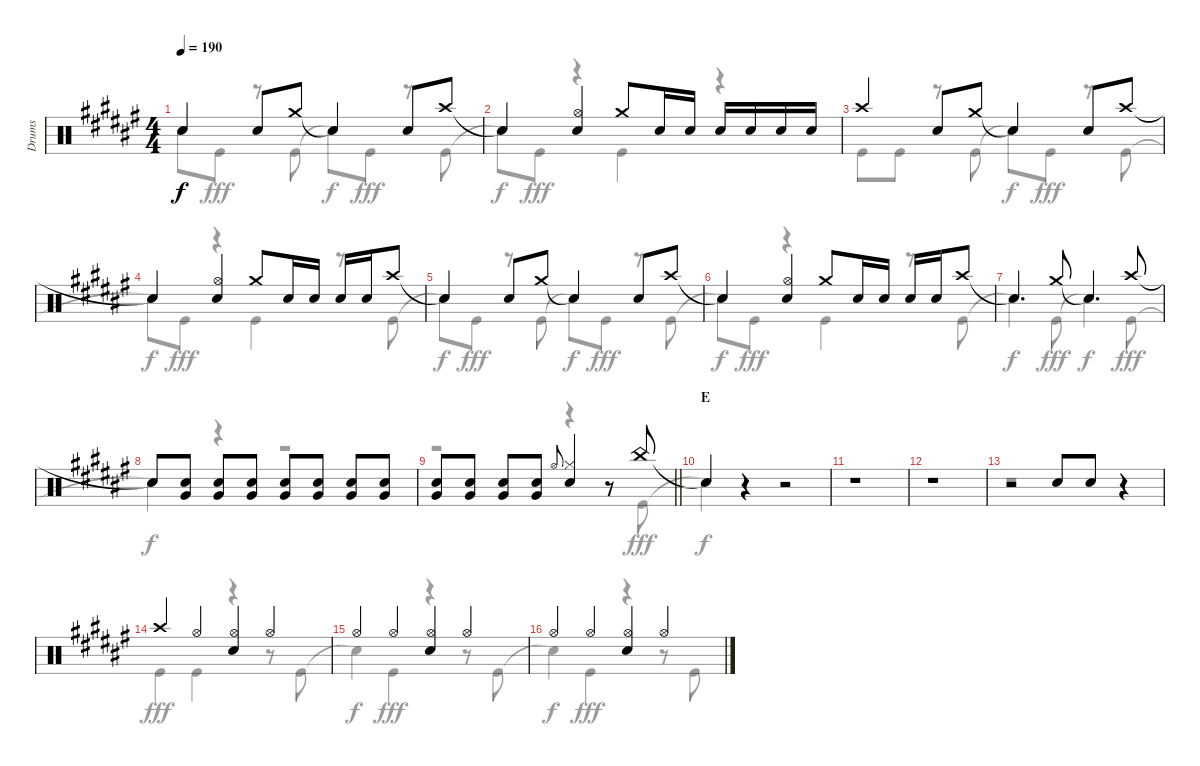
\track ("Drums" "Drums") {instrument percussion}
\staff {score}
\articulation defaults
\voice
\ts (4 4)
\tempo 190
\clef neutral
\ks f# "Snare (hit)"{t}.4{dy f} "Snare (hit) 2".8 "Crash medium (hit)".8 "Snare (hit)"{t}.4 "Snare (hit) 2".8 "Crash high (hit)".8
|
"Snare (hit)"{t}.4 ("Hi-Hat (open)" "Snare (hit) 2").4 "Crash medium (hit)".8 "Snare (hit) 2".16 "Snare (hit) 2".16 "Snare (hit) 2".16 "Snare (hit) 2".16 "Snare (hit) 2".16 "Snare (hit) 2".16 |
"Crash high (hit)".4 "Snare (hit) 2".8 "Crash medium (hit)".8 "Snare (hit)"{t}.4 "Snare (hit) 2".8 "Crash high (hit)".8 |
"Snare (hit)"{t}.4 ("Hi-Hat (open)" "Snare (hit) 2").4 "Crash medium (hit)".8 "Snare (hit) 2".16 "Snare (hit) 2".16 "Snare (hit) 2".16 "Snare (hit) 2".16 "Crash high (hit)".8 |
"Snare (hit)"{t}.4 "Snare (hit) 2".8 "Crash medium (hit)".8 "Snare (hit)"{t}.4 "Snare (hit) 2".8 "Crash high (hit)".8 |
"Snare (hit)"{t}.4 ("Hi-Hat (open)" "Snare (hit) 2").4 "Crash medium (hit)".8 "Snare (hit) 2".16 "Snare (hit) 2".16 "Snare (hit) 2".16 "Snare (hit) 2".16 "Crash high (hit)".8 |
"Snare (hit)"{t}.4{d} "Crash medium (hit)".8 "Snare (hit)"{t}.4{d} "Crash high (hit)".8 |
"Snare (hit)"{t}.8 ("Snare (hit) 2" "Very Low Tom (hit)").8 ("Snare (hit) 2" "Very Low Tom (hit)").8 ("Snare (hit) 2" "Very Low Tom (hit)").8 ("Snare (hit) 2" "Very Low Tom (hit)").8 ("Snare (hit) 2" "Very Low Tom (hit)").8 ("Snare (hit) 2" "Very Low Tom (hit)").8 ("Snare (hit) 2" "Very Low Tom (hit)").8 |
\barLineRight lightlight
("Snare (hit) 2" "Very Low Tom (hit)").8 ("Snare (hit) 2" "Very Low Tom (hit)").8 ("Snare (hit) 2" "Very Low Tom (hit)").8 ("Snare (hit) 2" "Very Low Tom (hit)").8 "Hi-Hat (open)".8{gr onbeat} ("Hi-Hat (closed)" "Snare (hit) 2").4 r.8 "China (hit)".8 |
\section ("" "E")
"Snare (hit)"{t}.4 r.4 r.2 |
r.1 |
r.1 |
r.2 "Snare (hit) 2".8 "Snare (hit) 2".8 r.4 |
"Crash high (hit)".4 "Hi-Hat (open)".4 ("Hi-Hat (open)" "Snare (hit) 2").4 "Hi-Hat (open)".4 |
"Hi-Hat (open)".4 "Hi-Hat (open)".4 ("Hi-Hat (open)" "Snare (hit) 2").4 "Hi-Hat (open)".4 |
"Hi-Hat (open)".4 "Hi-Hat (open)".4 ("Hi-Hat (open)" "Snare (hit) 2").4 "Hi-Hat (open)".4
\voice
\clef neutral
\ottava regular
\simile none
\ks f# "Snare (hit)"{t}.8{dy f} "Kick (hit)".8{dy fff}
r.8 "Kick (hit)".8 "Snare (hit)"{t}.8{dy f} "Kick (hit)".8{dy fff} r.8 "Kick (hit)".8 |
"Snare (hit)"{t}.8{dy f} "Kick (hit)".8{dy fff} r.4 "Kick (hit)".4 r.4 |
"Kick (hit)".8 "Kick (hit)".8 r.8 "Kick (hit)".8 "Snare (hit)"{t}.8{dy f} "Kick (hit)".8{dy fff} r.8 "Kick (hit)".8 |
"Snare (hit)"{t}.8{dy f} "Kick (hit)".8{dy fff} r.4 "Kick (hit)".4 r.8 "Kick (hit)".8 |
"Snare (hit)"{t}.8{dy f} "Kick (hit)".8{dy fff} r.8 "Kick (hit)".8 "Snare (hit)"{t}.8{dy f} "Kick (hit)".8{dy fff} r.8 "Kick (hit)".8 |
"Snare (hit)"{t}.8{dy f} "Kick (hit)".8{dy fff} r.4 "Kick (hit)".4 r.8 "Kick (hit)".8 |
"Snare (hit)"{t}.4{d dy f} "Kick (hit)".8{dy fff} "Snare (hit)"{t}.4{d dy f} "Kick (hit)".8{dy fff} |
"Snare (hit)"{t}.4{dy f} r.4 r.2 |
\barLineRight lightlight
r.2 r.4 r.8 "Kick (hit)".8{dy fff} |
"Snare (hit)"{t}.4{dy f} r.4 r.2 |
r.1 |
r.1 |
r.1 |
"Kick (hit)".4{dy fff} "Kick (hit)".4 r.4 r.8 "Kick (hit)".8 |
"Snare (hit)"{t}.4{dy f} "Kick (hit)".4{dy fff} r.4 r.8 "Kick (hit)".8 |
"Snare (hit)"{t}.4{dy f} "Kick (hit)".4{dy fff} r.4 r.8 "Kick (hit)".8
